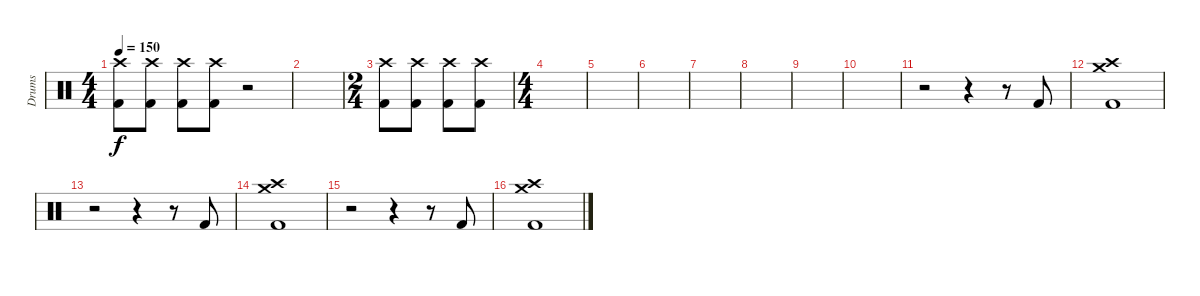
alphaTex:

\track ("Drums" "Drums") {instrument percussion}
\staff {score}
\articulation defaults
\ts (4 4)
\tempo 150
\clef neutral
\ks c
("Crash high (hit)" "Kick (hit) 2").8{dy f} ("Crash high (hit)" "Kick (hit) 2").8 ("Crash high (hit)" "Kick (hit) 2").8 ("Crash high (hit)" "Kick (hit) 2").8 r.2 |
|
\ts (2 4)
("Crash high (hit)" "Kick (hit) 2").8 ("Crash high (hit)" "Kick (hit) 2").8 ("Crash high (hit)" "Kick (hit) 2").8 ("Crash high (hit)" "Kick (hit) 2").8 |
\ts (4 4)
|
|
|
|
|
|
|
r.2 r.4 r.8 "Kick (hit) 2".8 |
("Crash medium (hit)" "Crash high (hit)" "Kick (hit) 2").1 |
r.2 r.4 r.8 "Kick (hit) 2".8 |
("Crash medium (hit)" "Crash high (hit)" "Kick (hit) 2").1 |
r.2 r.4 r.8 "Kick (hit) 2".8 |
("Crash medium (hit)" "Crash high (hit)" "Kick (hit) 2").1
